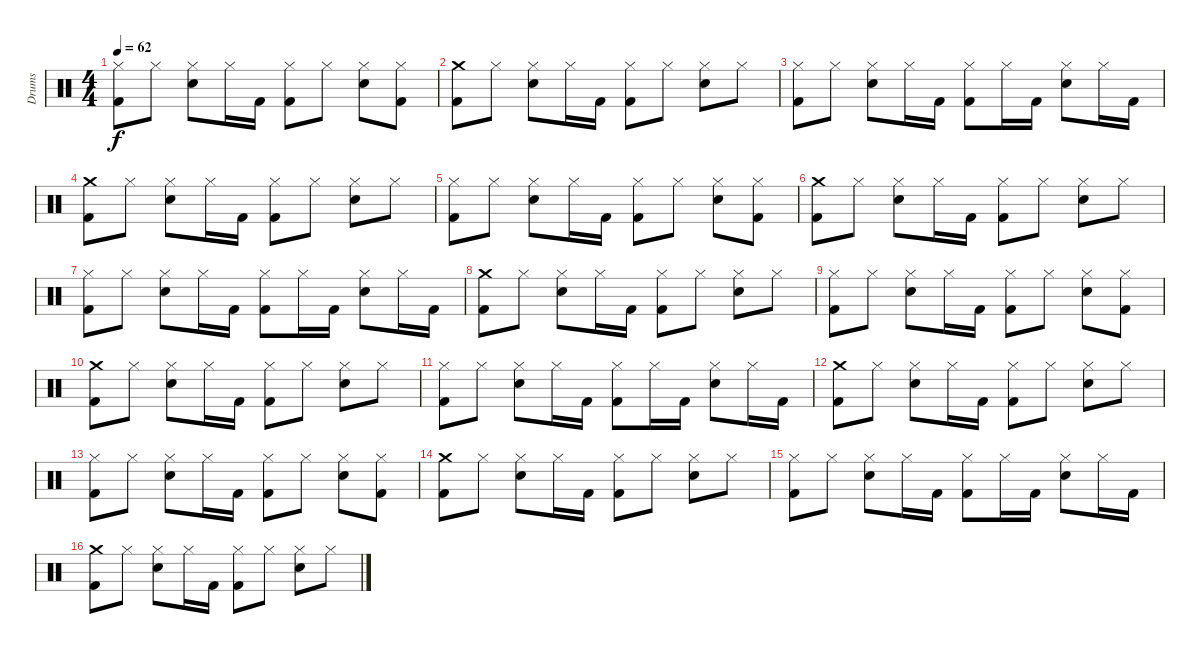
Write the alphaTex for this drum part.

\track ("Drums" "Drums") {instrument percussion}
\staff {score}
\articulation defaults
\ts (4 4)
\tempo 62
\clef neutral
\ks c
("Hi-Hat (closed)" "Kick (hit) 2").8{dy f} "Hi-Hat (closed)".8 ("Hi-Hat (closed)" "Electric Snare (hit)").8 "Hi-Hat (closed)".16 "Kick (hit) 2".16 ("Hi-Hat (closed)" "Kick (hit) 2").8 "Hi-Hat (closed)".8 ("Hi-Hat (closed)" "Electric Snare (hit)").8 ("Hi-Hat (closed)" "Kick (hit) 2").8 |
("Crash medium (hit)" "Kick (hit) 2").8 "Hi-Hat (closed)".8 ("Hi-Hat (closed)" "Electric Snare (hit)").8 "Hi-Hat (closed)".16 "Kick (hit) 2".16 ("Hi-Hat (closed)" "Kick (hit) 2").8 "Hi-Hat (closed)".8 ("Hi-Hat (closed)" "Electric Snare (hit)").8 "Hi-Hat (closed)".8 |
("Hi-Hat (closed)" "Kick (hit) 2").8 "Hi-Hat (closed)".8 ("Hi-Hat (closed)" "Electric Snare (hit)").8 "Hi-Hat (closed)".16 "Kick (hit) 2".16 ("Hi-Hat (closed)" "Kick (hit) 2").8 "Hi-Hat (closed)".16 "Kick (hit) 2".16 ("Hi-Hat (closed)" "Electric Snare (hit)").8 "Hi-Hat (closed)".16 "Kick (hit) 2".16 |
("Crash medium (hit)" "Kick (hit) 2").8 "Hi-Hat (closed)".8 ("Hi-Hat (closed)" "Electric Snare (hit)").8 "Hi-Hat (closed)".16 "Kick (hit) 2".16 ("Hi-Hat (closed)" "Kick (hit) 2").8 "Hi-Hat (closed)".8 ("Hi-Hat (closed)" "Electric Snare (hit)").8 "Hi-Hat (closed)".8 |
("Hi-Hat (closed)" "Kick (hit) 2").8 "Hi-Hat (closed)".8 ("Hi-Hat (closed)" "Electric Snare (hit)").8 "Hi-Hat (closed)".16 "Kick (hit) 2".16 ("Hi-Hat (closed)" "Kick (hit) 2").8 "Hi-Hat (closed)".8 ("Hi-Hat (closed)" "Electric Snare (hit)").8 ("Hi-Hat (closed)" "Kick (hit) 2").8 |
("Crash medium (hit)" "Kick (hit) 2").8 "Hi-Hat (closed)".8 ("Hi-Hat (closed)" "Electric Snare (hit)").8 "Hi-Hat (closed)".16 "Kick (hit) 2".16 ("Hi-Hat (closed)" "Kick (hit) 2").8 "Hi-Hat (closed)".8 ("Hi-Hat (closed)" "Electric Snare (hit)").8 "Hi-Hat (closed)".8 |
("Hi-Hat (closed)" "Kick (hit) 2").8 "Hi-Hat (closed)".8 ("Hi-Hat (closed)" "Electric Snare (hit)").8 "Hi-Hat (closed)".16 "Kick (hit) 2".16 ("Hi-Hat (closed)" "Kick (hit) 2").8 "Hi-Hat (closed)".16 "Kick (hit) 2".16 ("Hi-Hat (closed)" "Electric Snare (hit)").8 "Hi-Hat (closed)".16 "Kick (hit) 2".16 |
("Crash medium (hit)" "Kick (hit) 2").8 "Hi-Hat (closed)".8 ("Hi-Hat (closed)" "Electric Snare (hit)").8 "Hi-Hat (closed)".16 "Kick (hit) 2".16 ("Hi-Hat (closed)" "Kick (hit) 2").8 "Hi-Hat (closed)".8 ("Hi-Hat (closed)" "Electric Snare (hit)").8 "Hi-Hat (closed)".8 |
("Hi-Hat (closed)" "Kick (hit) 2").8 "Hi-Hat (closed)".8 ("Hi-Hat (closed)" "Electric Snare (hit)").8 "Hi-Hat (closed)".16 "Kick (hit) 2".16 ("Hi-Hat (closed)" "Kick (hit) 2").8 "Hi-Hat (closed)".8 ("Hi-Hat (closed)" "Electric Snare (hit)").8 ("Hi-Hat (closed)" "Kick (hit) 2").8 |
("Crash medium (hit)" "Kick (hit) 2").8 "Hi-Hat (closed)".8 ("Hi-Hat (closed)" "Electric Snare (hit)").8 "Hi-Hat (closed)".16 "Kick (hit) 2".16 ("Hi-Hat (closed)" "Kick (hit) 2").8 "Hi-Hat (closed)".8 ("Hi-Hat (closed)" "Electric Snare (hit)").8 "Hi-Hat (closed)".8 |
("Hi-Hat (closed)" "Kick (hit) 2").8 "Hi-Hat (closed)".8 ("Hi-Hat (closed)" "Electric Snare (hit)").8 "Hi-Hat (closed)".16 "Kick (hit) 2".16 ("Hi-Hat (closed)" "Kick (hit) 2").8 "Hi-Hat (closed)".16 "Kick (hit) 2".16 ("Hi-Hat (closed)" "Electric Snare (hit)").8 "Hi-Hat (closed)".16 "Kick (hit) 2".16 |
("Crash medium (hit)" "Kick (hit) 2").8 "Hi-Hat (closed)".8 ("Hi-Hat (closed)" "Electric Snare (hit)").8 "Hi-Hat (closed)".16 "Kick (hit) 2".16 ("Hi-Hat (closed)" "Kick (hit) 2").8 "Hi-Hat (closed)".8 ("Hi-Hat (closed)" "Electric Snare (hit)").8 "Hi-Hat (closed)".8 |
("Hi-Hat (closed)" "Kick (hit) 2").8 "Hi-Hat (closed)".8 ("Hi-Hat (closed)" "Electric Snare (hit)").8 "Hi-Hat (closed)".16 "Kick (hit) 2".16 ("Hi-Hat (closed)" "Kick (hit) 2").8 "Hi-Hat (closed)".8 ("Hi-Hat (closed)" "Electric Snare (hit)").8 ("Hi-Hat (closed)" "Kick (hit) 2").8 |
("Crash medium (hit)" "Kick (hit) 2").8 "Hi-Hat (closed)".8 ("Hi-Hat (closed)" "Electric Snare (hit)").8 "Hi-Hat (closed)".16 "Kick (hit) 2".16 ("Hi-Hat (closed)" "Kick (hit) 2").8 "Hi-Hat (closed)".8 ("Hi-Hat (closed)" "Electric Snare (hit)").8 "Hi-Hat (closed)".8 |
("Hi-Hat (closed)" "Kick (hit) 2").8 "Hi-Hat (closed)".8 ("Hi-Hat (closed)" "Electric Snare (hit)").8 "Hi-Hat (closed)".16 "Kick (hit) 2".16 ("Hi-Hat (closed)" "Kick (hit) 2").8 "Hi-Hat (closed)".16 "Kick (hit) 2".16 ("Hi-Hat (closed)" "Electric Snare (hit)").8 "Hi-Hat (closed)".16 "Kick (hit) 2".16 |
("Crash medium (hit)" "Kick (hit) 2").8 "Hi-Hat (closed)".8 ("Hi-Hat (closed)" "Electric Snare (hit)").8 "Hi-Hat (closed)".16 "Kick (hit) 2".16 ("Hi-Hat (closed)" "Kick (hit) 2").8 "Hi-Hat (closed)".8 ("Hi-Hat (closed)" "Electric Snare (hit)").8 "Hi-Hat (closed)".8
